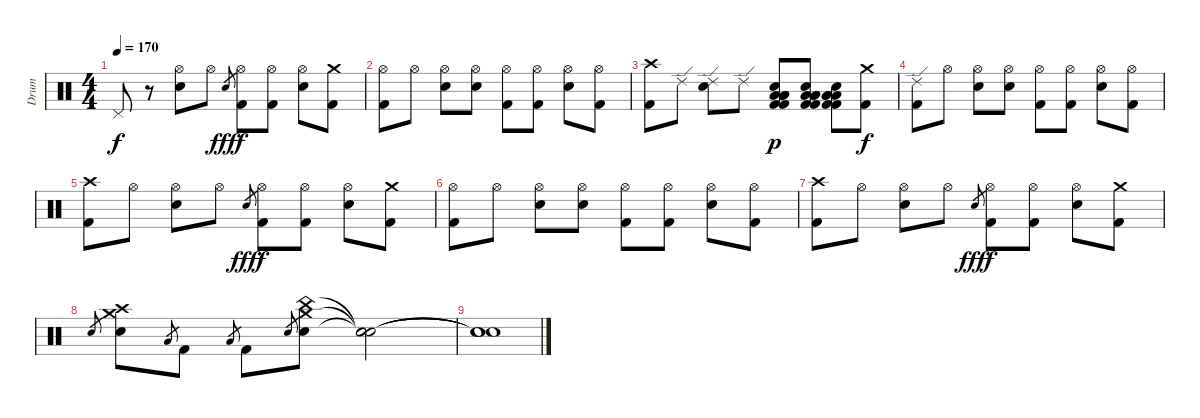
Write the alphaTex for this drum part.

\track ("Drum" "Drum") {instrument percussion}
\staff {score}
\articulation defaults
\ts (4 4)
\tempo 170
\clef neutral
\ks c "Pedal Hi-Hat (hit)".8{dy f}
r.8 ("Hi-Hat (open)" "Electric Snare (hit)").8 "Hi-Hat (open)".8 "Electric Snare (hit)".8{gr dy fff} ("Hi-Hat (open)" "Kick (hit) 2").8{dy f} ("Hi-Hat (open)" "Kick (hit) 2").8 ("Hi-Hat (open)" "Electric Snare (hit)").8 ("Crash medium (hit)" "Kick (hit) 2").8 |
("Hi-Hat (open)" "Kick (hit) 2").8 "Hi-Hat (open)".8 ("Hi-Hat (open)" "Electric Snare (hit)").8 ("Hi-Hat (open)" "Electric Snare (hit)").8 ("Hi-Hat (open)" "Kick (hit) 2").8 ("Hi-Hat (open)" "Kick (hit) 2").8 ("Hi-Hat (open)" "Electric Snare (hit)").8 ("Hi-Hat (open)" "Kick (hit) 2").8 |
("Crash high (hit)" "Kick (hit) 2").8 "Ride (edge) 2".8 ("Ride (edge) 2" "Electric Snare (hit)").8 "Ride (edge) 2".8 ("Low Tom (hit)" "Low Floor Tom (hit)" "Low Floor Tom (hit)" "Kick (hit) 2" "Snare (hit) 2" "Kick (hit) 2").8{dy p} ("Low Tom (hit)" "Low Floor Tom (hit)" "Low Floor Tom (hit)" "Kick (hit) 2" "Snare (hit) 2" "Kick (hit) 2").8 ("Low Tom (hit)" "Low Floor Tom (hit)" "Low Floor Tom (hit)" "Kick (hit) 2" "Snare (hit) 2" "Kick (hit) 2").8 ("Crash medium (hit)" "Kick (hit) 2").8{dy f} |
("Ride (edge) 2" "Kick (hit) 2").8 "Hi-Hat (open)".8 ("Hi-Hat (open)" "Electric Snare (hit)").8 ("Hi-Hat (open)" "Electric Snare (hit)").8 ("Hi-Hat (open)" "Kick (hit) 2").8 ("Hi-Hat (open)" "Kick (hit) 2").8 ("Hi-Hat (open)" "Electric Snare (hit)").8 ("Hi-Hat (open)" "Kick (hit) 2").8 |
("Crash high (hit)" "Kick (hit) 2").8 "Hi-Hat (open)".8 ("Hi-Hat (open)" "Electric Snare (hit)").8 "Hi-Hat (open)".8 "Electric Snare (hit)".8{gr dy fff} ("Hi-Hat (open)" "Kick (hit) 2").8{dy f} ("Hi-Hat (open)" "Kick (hit) 2").8 ("Hi-Hat (open)" "Electric Snare (hit)").8 ("Crash medium (hit)" "Kick (hit) 2").8 |
("Hi-Hat (open)" "Kick (hit) 2").8 "Hi-Hat (open)".8 ("Hi-Hat (open)" "Electric Snare (hit)").8 ("Hi-Hat (open)" "Electric Snare (hit)").8 ("Hi-Hat (open)" "Kick (hit) 2").8 ("Hi-Hat (open)" "Kick (hit) 2").8 ("Hi-Hat (open)" "Electric Snare (hit)").8 ("Hi-Hat (open)" "Kick (hit) 2").8 |
("Crash high (hit)" "Kick (hit) 2").8 "Hi-Hat (open)".8 ("Hi-Hat (open)" "Electric Snare (hit)").8 "Hi-Hat (open)".8 "Electric Snare (hit)".8{gr dy fff} ("Hi-Hat (open)" "Kick (hit) 2").8{dy f} ("Hi-Hat (open)" "Kick (hit) 2").8 ("Hi-Hat (open)" "Electric Snare (hit)").8 ("Crash medium (hit)" "Kick (hit) 2").8 |
"Electric Snare (hit)".8{gr} ("Crash high (hit)" "Crash medium (hit)" "Electric Snare (hit)").8 "Low Tom (hit)".8{gr} "Kick (hit) 2".8 "Low Tom (hit)".8{gr} "Kick (hit) 2".8 "Electric Snare (hit)".8{gr} ("China (hit)" "Crash medium (hit)" "Electric Snare (hit)").8 ("Snare (hit)"{t} "Snare (hit)"{t} "Snare (hit)"{t}).2 |
("Snare (hit)"{t} "Snare (hit)"{t} "Snare (hit)"{t}).1
